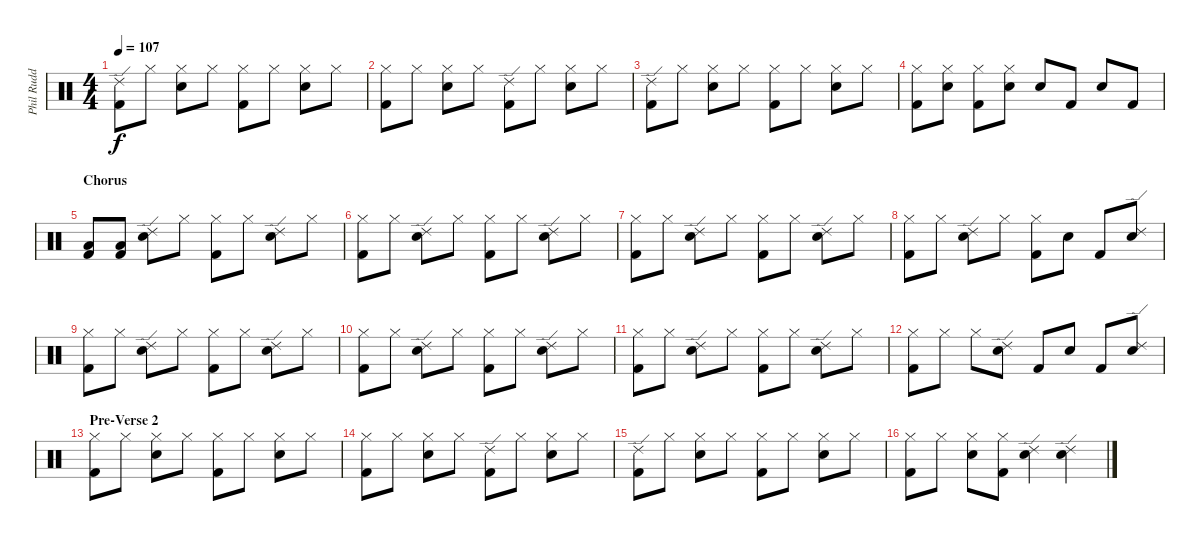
\track ("Phil Rudd" "Phil Rudd") {instrument percussion}
\staff {score}
\articulation defaults
\ts (4 4)
\tempo 107
\clef neutral
\ks c
("Kick (hit) 2" "Ride (edge) 2").8{dy f} "Hi-Hat (closed)".8 ("Hi-Hat (closed)" "Snare (hit) 2").8 "Hi-Hat (closed)".8 ("Hi-Hat (closed)" "Kick (hit) 2").8 "Hi-Hat (closed)".8 ("Hi-Hat (closed)" "Snare (hit) 2").8 "Hi-Hat (closed)".8 |
("Hi-Hat (closed)" "Kick (hit) 2").8 "Hi-Hat (closed)".8 ("Hi-Hat (closed)" "Snare (hit) 2").8 "Hi-Hat (closed)".8 ("Kick (hit) 2" "Ride (edge) 2").8 "Hi-Hat (closed)".8 ("Hi-Hat (closed)" "Snare (hit) 2").8 "Hi-Hat (closed)".8 |
("Kick (hit) 2" "Ride (edge) 2").8 "Hi-Hat (closed)".8 ("Hi-Hat (closed)" "Snare (hit) 2").8 "Hi-Hat (closed)".8 ("Hi-Hat (closed)" "Kick (hit) 2").8 "Hi-Hat (closed)".8 ("Hi-Hat (closed)" "Snare (hit) 2").8 "Hi-Hat (closed)".8 |
("Hi-Hat (closed)" "Kick (hit) 2").8 ("Hi-Hat (closed)" "Snare (hit) 2").8 ("Hi-Hat (closed)" "Kick (hit) 2").8 ("Hi-Hat (closed)" "Snare (hit) 2").8 "Snare (hit) 2".8 "Kick (hit) 2".8 "Snare (hit) 2".8 "Kick (hit) 2".8 |
\section ("" "Chorus")
("Kick (hit) 2" "Low Floor Tom (hit)").8 ("Kick (hit) 2" "Low Floor Tom (hit)").8 ("Snare (hit) 2" "Ride (edge) 2").8 "Hi-Hat (closed)".8 ("Hi-Hat (closed)" "Kick (hit) 2").8 "Hi-Hat (closed)".8 ("Snare (hit) 2" "Ride (edge) 2").8 "Hi-Hat (closed)".8 |
("Hi-Hat (closed)" "Kick (hit) 2").8 "Hi-Hat (closed)".8 ("Snare (hit) 2" "Ride (edge) 2").8 "Hi-Hat (closed)".8 ("Hi-Hat (closed)" "Kick (hit) 2").8 "Hi-Hat (closed)".8 ("Snare (hit) 2" "Ride (edge) 2").8 "Hi-Hat (closed)".8 |
("Hi-Hat (closed)" "Kick (hit) 2").8 "Hi-Hat (closed)".8 ("Snare (hit) 2" "Ride (edge) 2").8 "Hi-Hat (closed)".8 ("Hi-Hat (closed)" "Kick (hit) 2").8 "Hi-Hat (closed)".8 ("Snare (hit) 2" "Ride (edge) 2").8 "Hi-Hat (closed)".8 |
("Hi-Hat (closed)" "Kick (hit) 2").8 "Hi-Hat (closed)".8 ("Snare (hit) 2" "Ride (edge) 2").8 "Hi-Hat (closed)".8 ("Hi-Hat (closed)" "Kick (hit) 2").8 "Snare (hit) 2".8 "Kick (hit) 2".8 ("Snare (hit) 2" "Ride (edge) 2").8 |
("Hi-Hat (closed)" "Kick (hit) 2").8 "Hi-Hat (closed)".8 ("Snare (hit) 2" "Ride (edge) 2").8 "Hi-Hat (closed)".8 ("Hi-Hat (closed)" "Kick (hit) 2").8 "Hi-Hat (closed)".8 ("Snare (hit) 2" "Ride (edge) 2").8 "Hi-Hat (closed)".8 |
("Hi-Hat (closed)" "Kick (hit) 2").8 "Hi-Hat (closed)".8 ("Snare (hit) 2" "Ride (edge) 2").8 "Hi-Hat (closed)".8 ("Hi-Hat (closed)" "Kick (hit) 2").8 "Hi-Hat (closed)".8 ("Snare (hit) 2" "Ride (edge) 2").8 "Hi-Hat (closed)".8 |
("Hi-Hat (closed)" "Kick (hit) 2").8 "Hi-Hat (closed)".8 ("Snare (hit) 2" "Ride (edge) 2").8 "Hi-Hat (closed)".8 ("Hi-Hat (closed)" "Kick (hit) 2").8 "Hi-Hat (closed)".8 ("Snare (hit) 2" "Ride (edge) 2").8 "Hi-Hat (closed)".8 |
("Hi-Hat (closed)" "Kick (hit) 2").8 "Hi-Hat (closed)".8 "Hi-Hat (closed)".8 ("Snare (hit) 2" "Ride (edge) 2").8 "Kick (hit) 2".8 "Snare (hit) 2".8 "Kick (hit) 2".8 ("Snare (hit) 2" "Ride (edge) 2").8 |
\section ("" "Pre-Verse 2")
("Hi-Hat (closed)" "Kick (hit) 2").8 "Hi-Hat (closed)".8 ("Hi-Hat (closed)" "Snare (hit) 2").8 "Hi-Hat (closed)".8 ("Hi-Hat (closed)" "Kick (hit) 2").8 "Hi-Hat (closed)".8 ("Hi-Hat (closed)" "Snare (hit) 2").8 "Hi-Hat (closed)".8 |
("Hi-Hat (closed)" "Kick (hit) 2").8 "Hi-Hat (closed)".8 ("Hi-Hat (closed)" "Snare (hit) 2").8 "Hi-Hat (closed)".8 ("Kick (hit) 2" "Ride (edge) 2").8 "Hi-Hat (closed)".8 ("Hi-Hat (closed)" "Snare (hit) 2").8 "Hi-Hat (closed)".8 |
("Kick (hit) 2" "Ride (edge) 2").8 "Hi-Hat (closed)".8 ("Hi-Hat (closed)" "Snare (hit) 2").8 "Hi-Hat (closed)".8 ("Hi-Hat (closed)" "Kick (hit) 2").8 "Hi-Hat (closed)".8 ("Hi-Hat (closed)" "Snare (hit) 2").8 "Hi-Hat (closed)".8 |
("Hi-Hat (closed)" "Kick (hit) 2").8 "Hi-Hat (closed)".8 ("Hi-Hat (closed)" "Snare (hit) 2").8 ("Hi-Hat (closed)" "Kick (hit) 2").8 ("Snare (hit) 2" "Ride (edge) 2").4 ("Snare (hit) 2" "Ride (edge) 2").4
